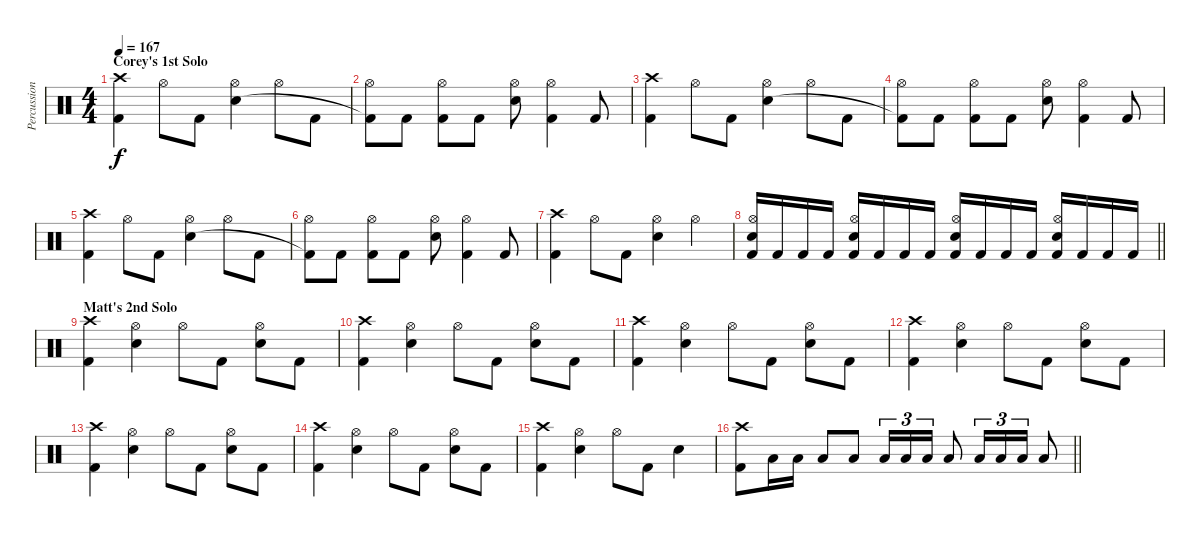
\track ("Percussion" "Percussion") {instrument percussion}
\staff {score}
\articulation defaults
\ts (4 4)
\section ("" "Corey's 1st Solo")
\tempo 167
\clef neutral
\ks c
("Crash high (hit)" "Kick (hit) 2").4{dy f} "Hi-Hat (open)".8 "Kick (hit) 2".8 ("Hi-Hat (open)" "Snare (hit) 2").4 "Hi-Hat (open)".8 "Kick (hit) 2".8 |
("Hi-Hat (open)" "Kick (hit) 2"{t}).8 "Kick (hit) 2".8 ("Hi-Hat (open)" "Kick (hit) 2").8 "Kick (hit) 2".8 ("Hi-Hat (open)" "Snare (hit) 2").8 ("Hi-Hat (open)" "Kick (hit) 2").4 "Kick (hit) 2".8 |
("Crash high (hit)" "Kick (hit) 2").4 "Hi-Hat (open)".8 "Kick (hit) 2".8 ("Hi-Hat (open)" "Snare (hit) 2").4 "Hi-Hat (open)".8 "Kick (hit) 2".8 |
("Hi-Hat (open)" "Kick (hit) 2"{t}).8 "Kick (hit) 2".8 ("Hi-Hat (open)" "Kick (hit) 2").8 "Kick (hit) 2".8 ("Hi-Hat (open)" "Snare (hit) 2").8 ("Hi-Hat (open)" "Kick (hit) 2").4 "Kick (hit) 2".8 |
("Crash high (hit)" "Kick (hit) 2").4 "Hi-Hat (open)".8 "Kick (hit) 2".8 ("Hi-Hat (open)" "Snare (hit) 2").4 "Hi-Hat (open)".8 "Kick (hit) 2".8 |
("Hi-Hat (open)" "Kick (hit) 2"{t}).8 "Kick (hit) 2".8 ("Hi-Hat (open)" "Kick (hit) 2").8 "Kick (hit) 2".8 ("Hi-Hat (open)" "Snare (hit) 2").8 ("Hi-Hat (open)" "Kick (hit) 2").4 "Kick (hit) 2".8 |
("Crash high (hit)" "Kick (hit) 2").4 "Hi-Hat (open)".8 "Kick (hit) 2".8 ("Hi-Hat (open)" "Snare (hit) 2").4 "Hi-Hat (open)".4 |
\barLineRight lightlight
("Hi-Hat (open)" "Snare (hit) 2" "Kick (hit) 2").16 "Kick (hit) 2".16 "Kick (hit) 2".16 "Kick (hit) 2".16 ("Hi-Hat (open)" "Snare (hit) 2" "Kick (hit) 2").16 "Kick (hit) 2".16 "Kick (hit) 2".16 "Kick (hit) 2".16 ("Hi-Hat (open)" "Snare (hit) 2" "Kick (hit) 2").16 "Kick (hit) 2".16 "Kick (hit) 2".16 "Kick (hit) 2".16 ("Hi-Hat (open)" "Snare (hit) 2" "Kick (hit) 2").16 "Kick (hit) 2".16 "Kick (hit) 2".16 "Kick (hit) 2".16 |
\section ("" "Matt's 2nd Solo")
("Crash high (hit)" "Kick (hit) 2").4 ("Hi-Hat (open)" "Snare (hit) 2").4 "Hi-Hat (open)".8 "Kick (hit) 2".8 ("Hi-Hat (open)" "Snare (hit) 2").8 "Kick (hit) 2".8 |
("Crash high (hit)" "Kick (hit) 2").4 ("Hi-Hat (open)" "Snare (hit) 2").4 "Hi-Hat (open)".8 "Kick (hit) 2".8 ("Hi-Hat (open)" "Snare (hit) 2").8 "Kick (hit) 2".8 |
("Crash high (hit)" "Kick (hit) 2").4 ("Hi-Hat (open)" "Snare (hit) 2").4 "Hi-Hat (open)".8 "Kick (hit) 2".8 ("Hi-Hat (open)" "Snare (hit) 2").8 "Kick (hit) 2".8 |
("Crash high (hit)" "Kick (hit) 2").4 ("Hi-Hat (open)" "Snare (hit) 2").4 "Hi-Hat (open)".8 "Kick (hit) 2".8 ("Hi-Hat (open)" "Snare (hit) 2").8 "Kick (hit) 2".8 |
("Crash high (hit)" "Kick (hit) 2").4 ("Hi-Hat (open)" "Snare (hit) 2").4 "Hi-Hat (open)".8 "Kick (hit) 2".8 ("Hi-Hat (open)" "Snare (hit) 2").8 "Kick (hit) 2".8 |
("Crash high (hit)" "Kick (hit) 2").4 ("Hi-Hat (open)" "Snare (hit) 2").4 "Hi-Hat (open)".8 "Kick (hit) 2".8 ("Hi-Hat (open)" "Snare (hit) 2").8 "Kick (hit) 2".8 |
("Crash high (hit)" "Kick (hit) 2").4 ("Hi-Hat (open)" "Snare (hit) 2").4 "Hi-Hat (open)".8 "Kick (hit) 2".8 "Snare (hit) 2".4 |
\barLineRight lightlight
("Crash high (hit)" "Kick (hit) 2").8 "Low Tom (hit)".16 "Low Tom (hit)".16 "Low Tom (hit)".8 "Low Tom (hit)".8 "Low Tom (hit)".16{tu (3 2)} "Low Tom (hit)".16{tu (3 2)} "Low Tom (hit)".16{tu (3 2)} "Low Tom (hit)".8 "Low Tom (hit)".16{tu (3 2)} "Low Tom (hit)".16{tu (3 2)} "Low Tom (hit)".16{tu (3 2)} "Low Tom (hit)".8
